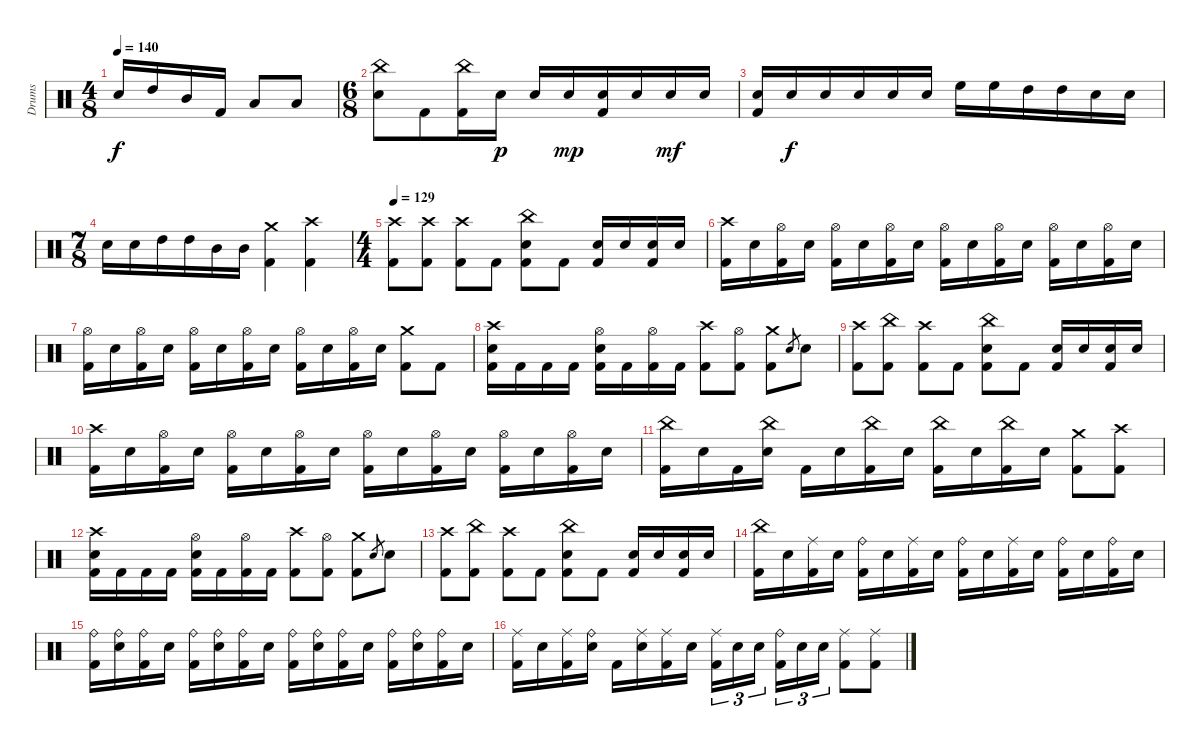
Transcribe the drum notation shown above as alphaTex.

\track ("Drums" "Drums") {instrument percussion}
\staff {score}
\articulation defaults
\ts (4 8)
\tempo 140
\clef neutral
\ks c "Electric Snare (hit)".16{dy f} "High Tom (hit)".16 "Mid Tom (hit)".16 "Kick (hit) 2".16 "Low Tom (hit)".8 "Low Tom (hit)".8
|
\ts (6 8)
("China (hit)" "Electric Snare (hit)").8 "Kick (hit) 2".8 ("Kick (hit) 2" "China (hit)").16 "Electric Snare (hit)".16{dy p} "Electric Snare (hit)".16 "Electric Snare (hit)".16{dy mp} ("Electric Snare (hit)" "Kick (hit) 2").16 "Electric Snare (hit)".16 "Electric Snare (hit)".16{dy mf} "Electric Snare (hit)".16 |
("Electric Snare (hit)" "Kick (hit) 2").16 "Electric Snare (hit)".16{dy f} "Electric Snare (hit)".16 "Electric Snare (hit)".16 "Electric Snare (hit)".16 "Electric Snare (hit)".16 "High Floor Tom (hit)".16 "High Floor Tom (hit)".16 "High Tom (hit)".16 "High Tom (hit)".16 "Electric Snare (hit)".16 "Electric Snare (hit)".16 |
\ts (7 8)
"Electric Snare (hit)".16 "Electric Snare (hit)".16 "High Tom (hit)".16 "High Tom (hit)".16 "Mid Tom (hit)".16 "Mid Tom (hit)".16 ("Crash medium (hit)" "Kick (hit) 2").4 ("Crash high (hit)" "Kick (hit) 2").4 |
\ts (4 4)
\tempo 129
("Kick (hit) 2" "Crash high (hit)").8 ("Kick (hit) 2" "Crash high (hit)").8 ("Kick (hit) 2" "Crash high (hit)").8 "Kick (hit) 2".8 ("Kick (hit) 2" "China (hit)" "Electric Snare (hit)").8 "Kick (hit) 2".8 ("Kick (hit) 2" "Electric Snare (hit)").16 "Electric Snare (hit)".16 ("Kick (hit) 2" "Electric Snare (hit)").16 "Electric Snare (hit)".16 |
("Crash high (hit)" "Kick (hit) 2").16 "Electric Snare (hit)".16 ("Hi-Hat (open)" "Kick (hit) 2").16 "Electric Snare (hit)".16 ("Hi-Hat (open)" "Kick (hit) 2").16 "Electric Snare (hit)".16 ("Hi-Hat (open)" "Kick (hit) 2").16 "Electric Snare (hit)".16 ("Hi-Hat (open)" "Kick (hit) 2").16 "Electric Snare (hit)".16 ("Hi-Hat (open)" "Kick (hit) 2").16 "Electric Snare (hit)".16 ("Hi-Hat (open)" "Kick (hit) 2").16 "Electric Snare (hit)".16 ("Hi-Hat (open)" "Kick (hit) 2").16 "Electric Snare (hit)".16 |
("Hi-Hat (open)" "Kick (hit) 2").16 "Electric Snare (hit)".16 ("Hi-Hat (open)" "Kick (hit) 2").16 "Electric Snare (hit)".16 ("Hi-Hat (open)" "Kick (hit) 2").16 "Electric Snare (hit)".16 ("Hi-Hat (open)" "Kick (hit) 2").16 "Electric Snare (hit)".16 ("Hi-Hat (open)" "Kick (hit) 2").16 "Electric Snare (hit)".16 ("Hi-Hat (open)" "Kick (hit) 2").16 "Electric Snare (hit)".16 ("Crash medium (hit)" "Kick (hit) 2").8 "Kick (hit) 2".8 |
("Kick (hit) 2" "Crash high (hit)" "Electric Snare (hit)").16 "Kick (hit) 2".16 "Kick (hit) 2".16 "Kick (hit) 2".16 ("Kick (hit) 2" "Hi-Hat (open)" "Electric Snare (hit)").16 "Kick (hit) 2".16 ("Kick (hit) 2" "Hi-Hat (open)").16 "Kick (hit) 2".16 ("Kick (hit) 2" "Crash high (hit)").8 ("Kick (hit) 2" "Hi-Hat (open)").8 ("Kick (hit) 2" "Crash medium (hit)").8 "Electric Snare (hit)".8{gr} "Electric Snare (hit)".8 |
("Kick (hit) 2" "Crash high (hit)").8 ("Kick (hit) 2" "China (hit)").8 ("Kick (hit) 2" "Crash high (hit)").8 "Kick (hit) 2".8 ("Kick (hit) 2" "China (hit)" "Electric Snare (hit)").8 "Kick (hit) 2".8 ("Kick (hit) 2" "Electric Snare (hit)").16 "Electric Snare (hit)".16 ("Kick (hit) 2" "Electric Snare (hit)").16 "Electric Snare (hit)".16 |
("Crash high (hit)" "Kick (hit) 2").16 "Electric Snare (hit)".16 ("Hi-Hat (open)" "Kick (hit) 2").16 "Electric Snare (hit)".16 ("Hi-Hat (open)" "Kick (hit) 2").16 "Electric Snare (hit)".16 ("Hi-Hat (open)" "Kick (hit) 2").16 "Electric Snare (hit)".16 ("Hi-Hat (open)" "Kick (hit) 2").16 "Electric Snare (hit)".16 ("Hi-Hat (open)" "Kick (hit) 2").16 "Electric Snare (hit)".16 ("Hi-Hat (open)" "Kick (hit) 2").16 "Electric Snare (hit)".16 ("Hi-Hat (open)" "Kick (hit) 2").16 "Electric Snare (hit)".16 |
("China (hit)" "Kick (hit) 2").16 "Electric Snare (hit)".16 "Kick (hit) 2".16 ("Electric Snare (hit)" "China (hit)").16 "Kick (hit) 2".16 "Electric Snare (hit)".16 ("China (hit)" "Kick (hit) 2").16 "Electric Snare (hit)".16 ("China (hit)" "Kick (hit) 2").16 "Electric Snare (hit)".16 ("China (hit)" "Kick (hit) 2").16 "Electric Snare (hit)".16 ("Crash medium (hit)" "Kick (hit) 2").8 ("Crash high (hit)" "Kick (hit) 2").8 |
("Kick (hit) 2" "Crash high (hit)" "Electric Snare (hit)").16 "Kick (hit) 2".16 "Kick (hit) 2".16 "Kick (hit) 2".16 ("Kick (hit) 2" "Hi-Hat (open)" "Electric Snare (hit)").16 "Kick (hit) 2".16 ("Kick (hit) 2" "Hi-Hat (open)").16 "Kick (hit) 2".16 ("Kick (hit) 2" "Crash high (hit)").8 ("Kick (hit) 2" "Hi-Hat (open)").8 ("Kick (hit) 2" "Crash medium (hit)").8 "Electric Snare (hit)".8{gr} "Electric Snare (hit)".8 |
("Kick (hit) 2" "Crash high (hit)").8 ("Kick (hit) 2" "China (hit)").8 ("Kick (hit) 2" "Crash high (hit)").8 "Kick (hit) 2".8 ("Kick (hit) 2" "China (hit)" "Electric Snare (hit)").8 "Kick (hit) 2".8 ("Kick (hit) 2" "Electric Snare (hit)").16 "Electric Snare (hit)".16 ("Kick (hit) 2" "Electric Snare (hit)").16 "Electric Snare (hit)".16 |
("China (hit)" "Kick (hit) 2").16 "Electric Snare (hit)".16 ("Ride (middle)" "Kick (hit) 2").16 "Electric Snare (hit)".16 ("Ride (bell)" "Kick (hit) 2").16 "Electric Snare (hit)".16 ("Ride (middle)" "Kick (hit) 2").16 "Electric Snare (hit)".16 ("Ride (bell)" "Kick (hit) 2").16 "Electric Snare (hit)".16 ("Ride (middle)" "Kick (hit) 2").16 "Electric Snare (hit)".16 ("Ride (bell)" "Kick (hit) 2").16 "Electric Snare (hit)".16 ("Ride (bell)" "Kick (hit) 2").16 "Electric Snare (hit)".16 |
("Ride (bell)" "Kick (hit) 2").16 ("Electric Snare (hit)" "Ride (bell)").16 ("Ride (bell)" "Kick (hit) 2").16 "Electric Snare (hit)".16 ("Ride (bell)" "Kick (hit) 2").16 ("Electric Snare (hit)" "Ride (bell)").16 ("Ride (bell)" "Kick (hit) 2").16 "Electric Snare (hit)".16 ("Ride (bell)" "Kick (hit) 2").16 ("Electric Snare (hit)" "Ride (bell)").16 ("Ride (bell)" "Kick (hit) 2").16 "Electric Snare (hit)".16 ("Ride (bell)" "Kick (hit) 2").16 ("Electric Snare (hit)" "Ride (bell)").16 ("Ride (bell)" "Kick (hit) 2").16 "Electric Snare (hit)".16 |
("Ride (middle)" "Kick (hit) 2").16 "Electric Snare (hit)".16 ("Ride (middle)" "Kick (hit) 2").16 ("Electric Snare (hit)" "Ride (bell)").16 "Kick (hit) 2".16 ("Electric Snare (hit)" "Ride (middle)").16 ("Ride (middle)" "Kick (hit) 2").16 "Electric Snare (hit)".16 ("Ride (middle)" "Kick (hit) 2").16{tu (3 2)} "Electric Snare (hit)".16{tu (3 2)} "Electric Snare (hit)".16{tu (3 2)} ("Ride (bell)" "Kick (hit) 2").16{tu (3 2)} "Electric Snare (hit)".16{tu (3 2)} "Electric Snare (hit)".16{tu (3 2)} ("Kick (hit) 2" "Ride (middle)").8 ("Ride (middle)" "Kick (hit) 2").8
